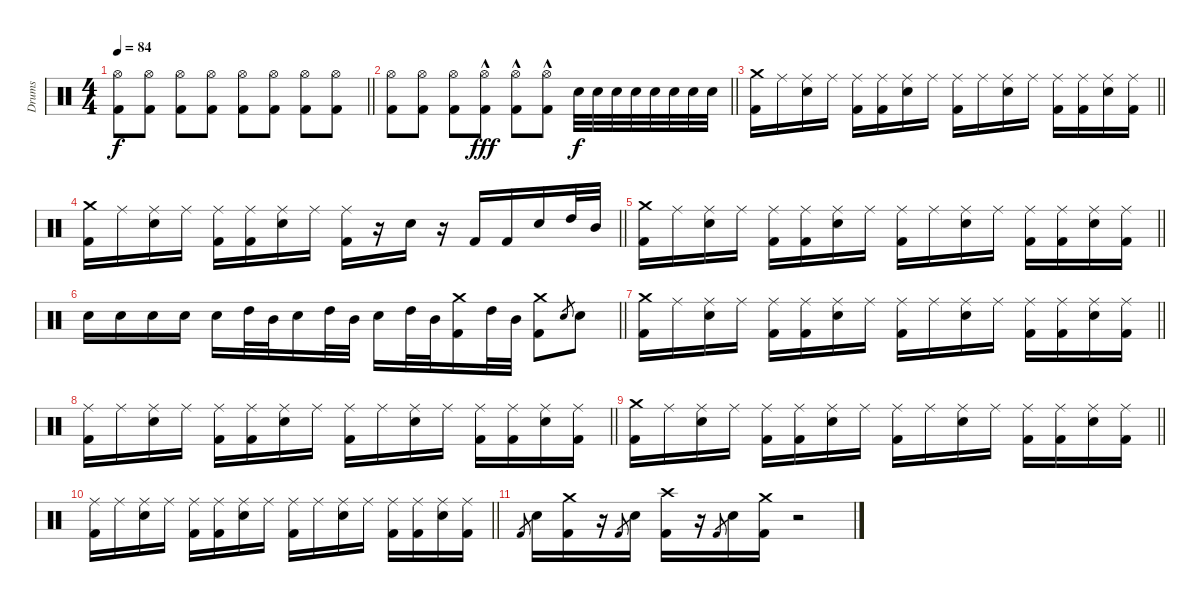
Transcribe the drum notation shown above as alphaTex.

\track ("Drums" "Drums") {instrument percussion}
\staff {score}
\articulation defaults
\ts (4 4)
\tempo 84
\clef neutral
\barLineRight lightlight
\ks c
("Hi-Hat (open)" "Kick (hit) 2").8{dy f} ("Hi-Hat (open)" "Kick (hit) 2").8 ("Hi-Hat (open)" "Kick (hit) 2").8 ("Hi-Hat (open)" "Kick (hit) 2").8 ("Hi-Hat (open)" "Kick (hit) 2").8 ("Hi-Hat (open)" "Kick (hit) 2").8 ("Hi-Hat (open)" "Kick (hit) 2").8 ("Hi-Hat (open)" "Kick (hit) 2").8 |
\barLineRight lightlight
("Hi-Hat (open)" "Kick (hit) 2").8 ("Hi-Hat (open)" "Kick (hit) 2").8 ("Hi-Hat (open)" "Kick (hit) 2").8 ("Hi-Hat (open)"{hac} "Kick (hit) 2"{hac}).8{dy fff} ("Hi-Hat (open)"{hac} "Kick (hit) 2"{hac}).8 ("Hi-Hat (open)"{hac} "Kick (hit) 2"{hac}).8 "Snare (hit) 2".32{dy f} "Snare (hit) 2".32 "Snare (hit) 2".32 "Snare (hit) 2".32 "Snare (hit) 2".32 "Snare (hit) 2".32 "Snare (hit) 2".32 "Snare (hit) 2".32 |
\barLineRight lightlight
("Crash medium (hit)" "Kick (hit) 2").16 "Ride (middle)".16 ("Ride (middle)" "Snare (hit) 2").16 "Ride (middle)".16 ("Ride (middle)" "Kick (hit) 2").16 ("Ride (middle)" "Kick (hit) 2").16 ("Ride (middle)" "Snare (hit) 2").16 "Ride (middle)".16 ("Ride (middle)" "Kick (hit) 2").16 "Ride (middle)".16 ("Ride (middle)" "Snare (hit) 2").16 "Ride (middle)".16 ("Ride (middle)" "Kick (hit) 2").16 ("Ride (middle)" "Kick (hit) 2").16 ("Ride (middle)" "Snare (hit) 2").16 ("Ride (middle)" "Kick (hit) 2").16 |
\barLineRight lightlight
("Crash medium (hit)" "Kick (hit) 2").16 "Ride (middle)".16 ("Ride (middle)" "Snare (hit) 2").16 "Ride (middle)".16 ("Ride (middle)" "Kick (hit) 2").16 ("Ride (middle)" "Kick (hit) 2").16 ("Ride (middle)" "Snare (hit) 2").16 "Ride (middle)".16 ("Ride (middle)" "Kick (hit) 2").16 r.16 "Snare (hit) 2".16 r.16 "Kick (hit) 2".16 "Kick (hit) 2".16 "Snare (hit) 2".16 "High Tom (hit)".32 "Mid Tom (hit)".32 |
\barLineRight lightlight
("Crash medium (hit)" "Kick (hit) 2").16 "Ride (middle)".16 ("Ride (middle)" "Snare (hit) 2").16 "Ride (middle)".16 ("Ride (middle)" "Kick (hit) 2").16 ("Ride (middle)" "Kick (hit) 2").16 ("Ride (middle)" "Snare (hit) 2").16 "Ride (middle)".16 ("Ride (middle)" "Kick (hit) 2").16 "Ride (middle)".16 ("Ride (middle)" "Snare (hit) 2").16 "Ride (middle)".16 ("Ride (middle)" "Kick (hit) 2").16 ("Ride (middle)" "Kick (hit) 2").16 ("Ride (middle)" "Snare (hit) 2").16 ("Ride (middle)" "Kick (hit) 2").16 |
\barLineRight lightlight "Snare (hit) 2".16 "Snare (hit) 2".16 "Snare (hit) 2".16 "Snare (hit) 2".16 "Snare (hit) 2".16 "High Tom (hit)".32 "Mid Tom (hit)".32 "Snare (hit) 2".16 "High Tom (hit)".32 "Mid Tom (hit)".32 "Snare (hit) 2".16 "High Tom (hit)".32 "Mid Tom (hit)".32
("Crash medium (hit)" "Kick (hit) 2").16 "High Tom (hit)".32 "Mid Tom (hit)".32 ("Crash medium (hit)" "Kick (hit) 2").8 "Electric Snare (hit)".8{gr} "Snare (hit) 2".8 |
\barLineRight lightlight
("Crash medium (hit)" "Kick (hit) 2").16 "Ride (middle)".16 ("Ride (middle)" "Snare (hit) 2").16 "Ride (middle)".16 ("Ride (middle)" "Kick (hit) 2").16 ("Ride (middle)" "Kick (hit) 2").16 ("Ride (middle)" "Snare (hit) 2").16 "Ride (middle)".16 ("Ride (middle)" "Kick (hit) 2").16 "Ride (middle)".16 ("Ride (middle)" "Snare (hit) 2").16 "Ride (middle)".16 ("Ride (middle)" "Kick (hit) 2").16 ("Ride (middle)" "Kick (hit) 2").16 ("Ride (middle)" "Snare (hit) 2").16 ("Ride (middle)" "Kick (hit) 2").16 |
\barLineRight lightlight
("Ride (middle)" "Kick (hit) 2").16 "Ride (middle)".16 ("Ride (middle)" "Snare (hit) 2").16 "Ride (middle)".16 ("Ride (middle)" "Kick (hit) 2").16 ("Ride (middle)" "Kick (hit) 2").16 ("Ride (middle)" "Snare (hit) 2").16 "Ride (middle)".16 ("Ride (middle)" "Kick (hit) 2").16 "Ride (middle)".16 ("Ride (middle)" "Snare (hit) 2").16 "Ride (middle)".16 ("Ride (middle)" "Kick (hit) 2").16 ("Ride (middle)" "Kick (hit) 2").16 ("Ride (middle)" "Snare (hit) 2").16 ("Ride (middle)" "Kick (hit) 2").16 |
\barLineRight lightlight
("Crash medium (hit)" "Kick (hit) 2").16 "Ride (middle)".16 ("Ride (middle)" "Snare (hit) 2").16 "Ride (middle)".16 ("Ride (middle)" "Kick (hit) 2").16 ("Ride (middle)" "Kick (hit) 2").16 ("Ride (middle)" "Snare (hit) 2").16 "Ride (middle)".16 ("Ride (middle)" "Kick (hit) 2").16 "Ride (middle)".16 ("Ride (middle)" "Snare (hit) 2").16 "Ride (middle)".16 ("Ride (middle)" "Kick (hit) 2").16 ("Ride (middle)" "Kick (hit) 2").16 ("Ride (middle)" "Snare (hit) 2").16 ("Ride (middle)" "Kick (hit) 2").16 |
\barLineRight lightlight
("Ride (middle)" "Kick (hit) 2").16 "Ride (middle)".16 ("Ride (middle)" "Snare (hit) 2").16 "Ride (middle)".16 ("Ride (middle)" "Kick (hit) 2").16 ("Ride (middle)" "Kick (hit) 2").16 ("Ride (middle)" "Snare (hit) 2").16 "Ride (middle)".16 ("Ride (middle)" "Kick (hit) 2").16 "Ride (middle)".16 ("Ride (middle)" "Snare (hit) 2").16 "Ride (middle)".16 ("Ride (middle)" "Kick (hit) 2").16 ("Ride (middle)" "Kick (hit) 2").16 ("Ride (middle)" "Snare (hit) 2").16 ("Ride (middle)" "Kick (hit) 2").16 |
"Kick (hit) 2".8{gr} "Snare (hit) 2".16 ("Crash medium (hit)" "Kick (hit) 2").16 r.16 "Kick (hit) 2".8{gr} "Snare (hit) 2".16 ("Crash high (hit)" "Kick (hit) 2").16 r.16 "Kick (hit) 2".8{gr} "Snare (hit) 2".16 ("Crash medium (hit)" "Kick (hit) 2").16 r.2
